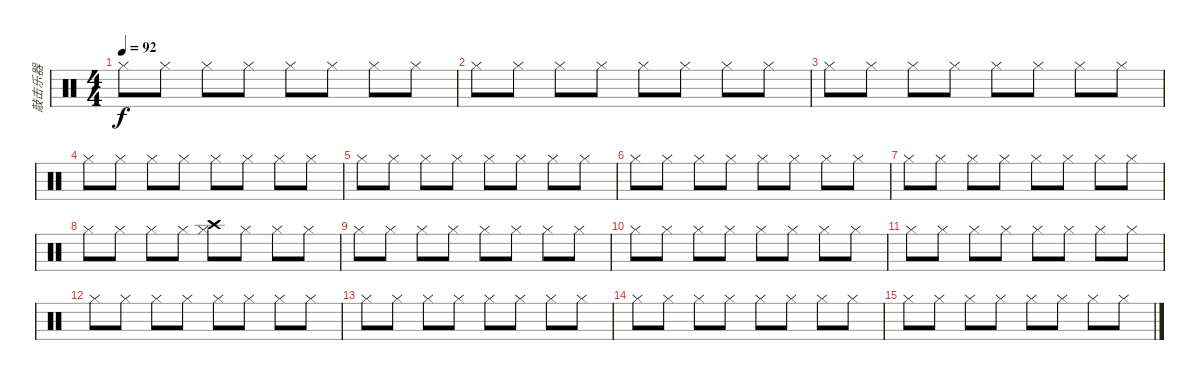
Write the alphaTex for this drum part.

\track ("敲击乐器" "敲击乐器") {instrument percussion}
\staff {score}
\articulation defaults
\ts (4 4)
\tempo 92
\clef neutral
\ks c "Hi-Hat (closed)".8{dy f} "Hi-Hat (closed)".8 "Hi-Hat (closed)".8 "Hi-Hat (closed)".8 "Hi-Hat (closed)".8 "Hi-Hat (closed)".8 "Hi-Hat (closed)".8 "Hi-Hat (closed)".8
|
"Hi-Hat (closed)".8 "Hi-Hat (closed)".8 "Hi-Hat (closed)".8 "Hi-Hat (closed)".8 "Hi-Hat (closed)".8 "Hi-Hat (closed)".8 "Hi-Hat (closed)".8 "Hi-Hat (closed)".8 |
"Hi-Hat (closed)".8 "Hi-Hat (closed)".8 "Hi-Hat (closed)".8 "Hi-Hat (closed)".8 "Hi-Hat (closed)".8 "Hi-Hat (closed)".8 "Hi-Hat (closed)".8 "Hi-Hat (closed)".8 |
"Hi-Hat (closed)".8 "Hi-Hat (closed)".8 "Hi-Hat (closed)".8 "Hi-Hat (closed)".8 "Hi-Hat (closed)".8 "Hi-Hat (closed)".8 "Hi-Hat (closed)".8 "Hi-Hat (closed)".8 |
"Hi-Hat (closed)".8 "Hi-Hat (closed)".8 "Hi-Hat (closed)".8 "Hi-Hat (closed)".8 "Hi-Hat (closed)".8 "Hi-Hat (closed)".8 "Hi-Hat (closed)".8 "Hi-Hat (closed)".8 |
"Hi-Hat (closed)".8 "Hi-Hat (closed)".8 "Hi-Hat (closed)".8 "Hi-Hat (closed)".8 "Hi-Hat (closed)".8 "Hi-Hat (closed)".8 "Hi-Hat (closed)".8 "Hi-Hat (closed)".8 |
"Hi-Hat (closed)".8 "Hi-Hat (closed)".8 "Hi-Hat (closed)".8 "Hi-Hat (closed)".8 "Hi-Hat (closed)".8 "Hi-Hat (closed)".8 "Hi-Hat (closed)".8 "Hi-Hat (closed)".8 |
"Hi-Hat (closed)".8 "Hi-Hat (closed)".8 "Hi-Hat (closed)".8 "Hi-Hat (closed)".8 ("Hi-Hat (closed)" "Crash high (hit)").8 "Hi-Hat (closed)".8 "Hi-Hat (closed)".8 "Hi-Hat (closed)".8 |
"Hi-Hat (closed)".8 "Hi-Hat (closed)".8 "Hi-Hat (closed)".8 "Hi-Hat (closed)".8 "Hi-Hat (closed)".8 "Hi-Hat (closed)".8 "Hi-Hat (closed)".8 "Hi-Hat (closed)".8 |
"Hi-Hat (closed)".8 "Hi-Hat (closed)".8 "Hi-Hat (closed)".8 "Hi-Hat (closed)".8 "Hi-Hat (closed)".8 "Hi-Hat (closed)".8 "Hi-Hat (closed)".8 "Hi-Hat (closed)".8 |
"Hi-Hat (closed)".8 "Hi-Hat (closed)".8 "Hi-Hat (closed)".8 "Hi-Hat (closed)".8 "Hi-Hat (closed)".8 "Hi-Hat (closed)".8 "Hi-Hat (closed)".8 "Hi-Hat (closed)".8 |
"Hi-Hat (closed)".8 "Hi-Hat (closed)".8 "Hi-Hat (closed)".8 "Hi-Hat (closed)".8 "Hi-Hat (closed)".8 "Hi-Hat (closed)".8 "Hi-Hat (closed)".8 "Hi-Hat (closed)".8 |
"Hi-Hat (closed)".8 "Hi-Hat (closed)".8 "Hi-Hat (closed)".8 "Hi-Hat (closed)".8 "Hi-Hat (closed)".8 "Hi-Hat (closed)".8 "Hi-Hat (closed)".8 "Hi-Hat (closed)".8 |
"Hi-Hat (closed)".8 "Hi-Hat (closed)".8 "Hi-Hat (closed)".8 "Hi-Hat (closed)".8 "Hi-Hat (closed)".8 "Hi-Hat (closed)".8 "Hi-Hat (closed)".8 "Hi-Hat (closed)".8 |
"Hi-Hat (closed)".8 "Hi-Hat (closed)".8 "Hi-Hat (closed)".8 "Hi-Hat (closed)".8 "Hi-Hat (closed)".8 "Hi-Hat (closed)".8 "Hi-Hat (closed)".8 "Hi-Hat (closed)".8
